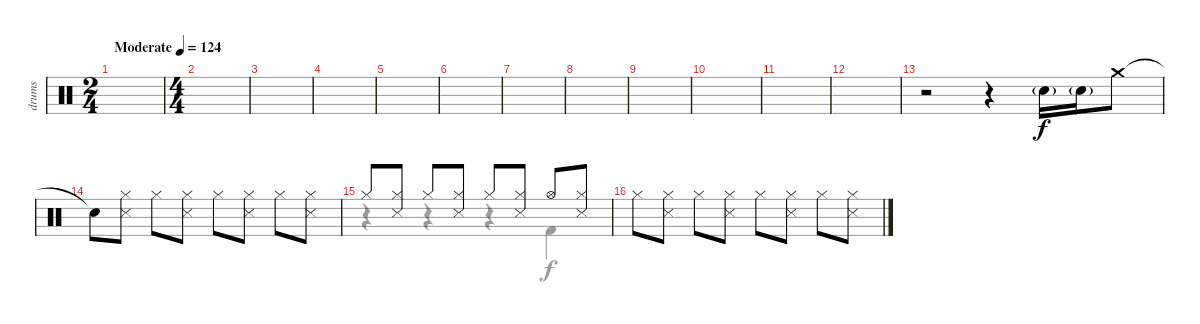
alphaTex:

\track ("drums" "drums") {instrument percussion}
\staff {score}
\articulation defaults
\voice
\ts (2 4)
\tempo (124 "Moderate")
\clef neutral
\ks c
|
\ts (4 4)
|
|
|
|
|
|
|
|
|
|
|
r.2 r.4 "Snare (hit) 2"{g}.16 "Snare (hit) 2"{g}.16 "Crash medium (hit)".8{dy f} |
"Snare (hit)"{t}.8 ("Hi-Hat (closed)" "Snare (side stick) 3").8 "Hi-Hat (closed)".8 ("Hi-Hat (closed)" "Snare (side stick) 3").8 "Hi-Hat (closed)".8 ("Hi-Hat (closed)" "Snare (side stick) 3").8 "Hi-Hat (closed)".8 ("Hi-Hat (closed)" "Snare (side stick) 3").8 |
"Hi-Hat (closed)".8 ("Hi-Hat (closed)" "Snare (side stick) 3").8 "Hi-Hat (closed)".8 ("Hi-Hat (closed)" "Snare (side stick) 3").8 "Hi-Hat (closed)".8 ("Hi-Hat (closed)" "Snare (side stick) 3").8 "Hi-Hat (open)".8 ("Hi-Hat (closed)" "Snare (side stick) 3").8 |
"Hi-Hat (closed)".8 ("Hi-Hat (closed)" "Snare (side stick) 3").8 "Hi-Hat (closed)".8 ("Hi-Hat (closed)" "Snare (side stick) 3").8 "Hi-Hat (closed)".8 ("Hi-Hat (closed)" "Snare (side stick) 3").8 "Hi-Hat (closed)".8 ("Hi-Hat (closed)" "Snare (side stick) 3").8
\voice
\clef neutral
\ottava regular
\simile none
\ks c
|
|
|
|
|
|
|
|
|
|
|
|
|
|
r.4 r.4 r.4 "Kick (hit) 2".4 |
